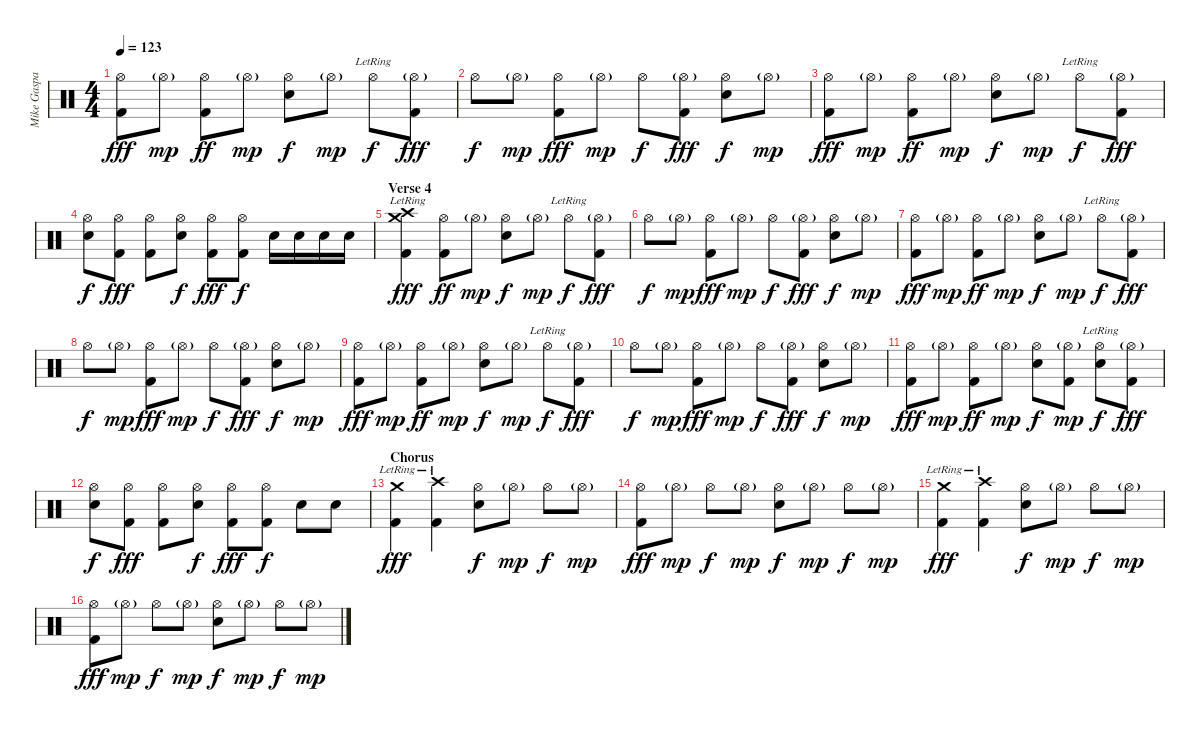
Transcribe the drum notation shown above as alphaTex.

\track ("Mike Gaspar (Drums)" "Mike Gaspa") {instrument percussion}
\staff {score}
\articulation defaults
\ts (4 4)
\tempo 123
\clef neutral
\ks c
("Hi-Hat (open)" "Kick (hit) 2").8{dy fff} "Hi-Hat (open)"{g}.8{dy mp} ("Hi-Hat (open)" "Kick (hit) 2").8{dy ff} "Hi-Hat (open)"{g}.8{dy mp} ("Hi-Hat (open)" "Snare (hit) 2").8{dy f} "Hi-Hat (open)"{g}.8{dy mp} "Hi-Hat (open)"{lr}.8{dy f} ("Hi-Hat (open)"{g} "Kick (hit) 2").8{dy fff} |
"Hi-Hat (open)".8{dy f} "Hi-Hat (open)"{g}.8{dy mp} ("Hi-Hat (open)" "Kick (hit) 2").8{dy fff} "Hi-Hat (open)"{g}.8{dy mp} "Hi-Hat (open)".8{dy f} ("Hi-Hat (open)"{g} "Kick (hit) 2").8{dy fff} ("Hi-Hat (open)" "Snare (hit) 2").8{dy f} "Hi-Hat (open)"{g}.8{dy mp} |
("Hi-Hat (open)" "Kick (hit) 2").8{dy fff} "Hi-Hat (open)"{g}.8{dy mp} ("Hi-Hat (open)" "Kick (hit) 2").8{dy ff} "Hi-Hat (open)"{g}.8{dy mp} ("Hi-Hat (open)" "Snare (hit) 2").8{dy f} "Hi-Hat (open)"{g}.8{dy mp} "Hi-Hat (open)"{lr}.8{dy f} ("Hi-Hat (open)"{g} "Kick (hit) 2").8{dy fff} |
("Hi-Hat (open)" "Snare (hit) 2").8{dy f} ("Hi-Hat (open)" "Kick (hit) 2").8{dy fff} ("Hi-Hat (open)" "Kick (hit) 2").8 ("Hi-Hat (open)" "Snare (hit) 2").8{dy f} ("Hi-Hat (open)" "Kick (hit) 2").8{dy fff} ("Hi-Hat (open)" "Kick (hit) 2").8{dy f} "Snare (hit) 2".16 "Snare (hit) 2".16 "Snare (hit) 2".16 "Snare (hit) 2".16 |
\section ("" "Verse 4")
("Crash medium (hit)"{lr} "Crash high (hit)"{lr} "Kick (hit) 2").4{dy fff} ("Hi-Hat (open)" "Kick (hit) 2").8{dy ff} "Hi-Hat (open)"{g}.8{dy mp} ("Hi-Hat (open)" "Snare (hit) 2").8{dy f} "Hi-Hat (open)"{g}.8{dy mp} "Hi-Hat (open)"{lr}.8{dy f} ("Hi-Hat (open)"{g} "Kick (hit) 2").8{dy fff} |
"Hi-Hat (open)".8{dy f} "Hi-Hat (open)"{g}.8{dy mp} ("Hi-Hat (open)" "Kick (hit) 2").8{dy fff} "Hi-Hat (open)"{g}.8{dy mp} "Hi-Hat (open)".8{dy f} ("Hi-Hat (open)"{g} "Kick (hit) 2").8{dy fff} ("Hi-Hat (open)" "Snare (hit) 2").8{dy f} "Hi-Hat (open)"{g}.8{dy mp} |
("Hi-Hat (open)" "Kick (hit) 2").8{dy fff} "Hi-Hat (open)"{g}.8{dy mp} ("Hi-Hat (open)" "Kick (hit) 2").8{dy ff} "Hi-Hat (open)"{g}.8{dy mp} ("Hi-Hat (open)" "Snare (hit) 2").8{dy f} "Hi-Hat (open)"{g}.8{dy mp} "Hi-Hat (open)"{lr}.8{dy f} ("Hi-Hat (open)"{g} "Kick (hit) 2").8{dy fff} |
"Hi-Hat (open)".8{dy f} "Hi-Hat (open)"{g}.8{dy mp} ("Hi-Hat (open)" "Kick (hit) 2").8{dy fff} "Hi-Hat (open)"{g}.8{dy mp} "Hi-Hat (open)".8{dy f} ("Hi-Hat (open)"{g} "Kick (hit) 2").8{dy fff} ("Hi-Hat (open)" "Snare (hit) 2").8{dy f} "Hi-Hat (open)"{g}.8{dy mp} |
("Hi-Hat (open)" "Kick (hit) 2").8{dy fff} "Hi-Hat (open)"{g}.8{dy mp} ("Hi-Hat (open)" "Kick (hit) 2").8{dy ff} "Hi-Hat (open)"{g}.8{dy mp} ("Hi-Hat (open)" "Snare (hit) 2").8{dy f} "Hi-Hat (open)"{g}.8{dy mp} "Hi-Hat (open)"{lr}.8{dy f} ("Hi-Hat (open)"{g} "Kick (hit) 2").8{dy fff} |
"Hi-Hat (open)".8{dy f} "Hi-Hat (open)"{g}.8{dy mp} ("Hi-Hat (open)" "Kick (hit) 2").8{dy fff} "Hi-Hat (open)"{g}.8{dy mp} "Hi-Hat (open)".8{dy f} ("Hi-Hat (open)"{g} "Kick (hit) 2").8{dy fff} ("Hi-Hat (open)" "Snare (hit) 2").8{dy f} "Hi-Hat (open)"{g}.8{dy mp} |
("Hi-Hat (open)" "Kick (hit) 2").8{dy fff} "Hi-Hat (open)"{g}.8{dy mp} ("Hi-Hat (open)" "Kick (hit) 2").8{dy ff} "Hi-Hat (open)"{g}.8{dy mp} ("Hi-Hat (open)" "Snare (hit) 2").8{dy f} ("Hi-Hat (open)"{g} "Kick (hit) 2").8{dy mp} ("Hi-Hat (open)"{lr} "Snare (hit) 2").8{dy f} ("Hi-Hat (open)"{g} "Kick (hit) 2").8{dy fff} |
("Hi-Hat (open)" "Snare (hit) 2").8{dy f} ("Hi-Hat (open)" "Kick (hit) 2").8{dy fff} ("Hi-Hat (open)" "Kick (hit) 2").8 ("Hi-Hat (open)" "Snare (hit) 2").8{dy f} ("Hi-Hat (open)" "Kick (hit) 2").8{dy fff} ("Hi-Hat (open)" "Kick (hit) 2").8{dy f} "Snare (hit) 2".8 "Snare (hit) 2".8 |
\section ("" "Chorus")
("Crash medium (hit)"{lr} "Kick (hit) 2").4{dy fff} ("Crash high (hit)"{lr} "Kick (hit) 2").4 ("Hi-Hat (open)" "Snare (hit) 2").8{dy f} "Hi-Hat (open)"{g}.8{dy mp} "Hi-Hat (open)".8{dy f} "Hi-Hat (open)"{g}.8{dy mp} |
("Hi-Hat (open)" "Kick (hit) 2").8{dy fff} "Hi-Hat (open)"{g}.8{dy mp} "Hi-Hat (open)".8{dy f} "Hi-Hat (open)"{g}.8{dy mp} ("Hi-Hat (open)" "Snare (hit) 2").8{dy f} "Hi-Hat (open)"{g}.8{dy mp} "Hi-Hat (open)".8{dy f} "Hi-Hat (open)"{g}.8{dy mp} |
("Crash medium (hit)"{lr} "Kick (hit) 2").4{dy fff} ("Crash high (hit)"{lr} "Kick (hit) 2").4 ("Hi-Hat (open)" "Snare (hit) 2").8{dy f} "Hi-Hat (open)"{g}.8{dy mp} "Hi-Hat (open)".8{dy f} "Hi-Hat (open)"{g}.8{dy mp} |
("Hi-Hat (open)" "Kick (hit) 2").8{dy fff} "Hi-Hat (open)"{g}.8{dy mp} "Hi-Hat (open)".8{dy f} "Hi-Hat (open)"{g}.8{dy mp} ("Hi-Hat (open)" "Snare (hit) 2").8{dy f} "Hi-Hat (open)"{g}.8{dy mp} "Hi-Hat (open)".8{dy f} "Hi-Hat (open)"{g}.8{dy mp}
